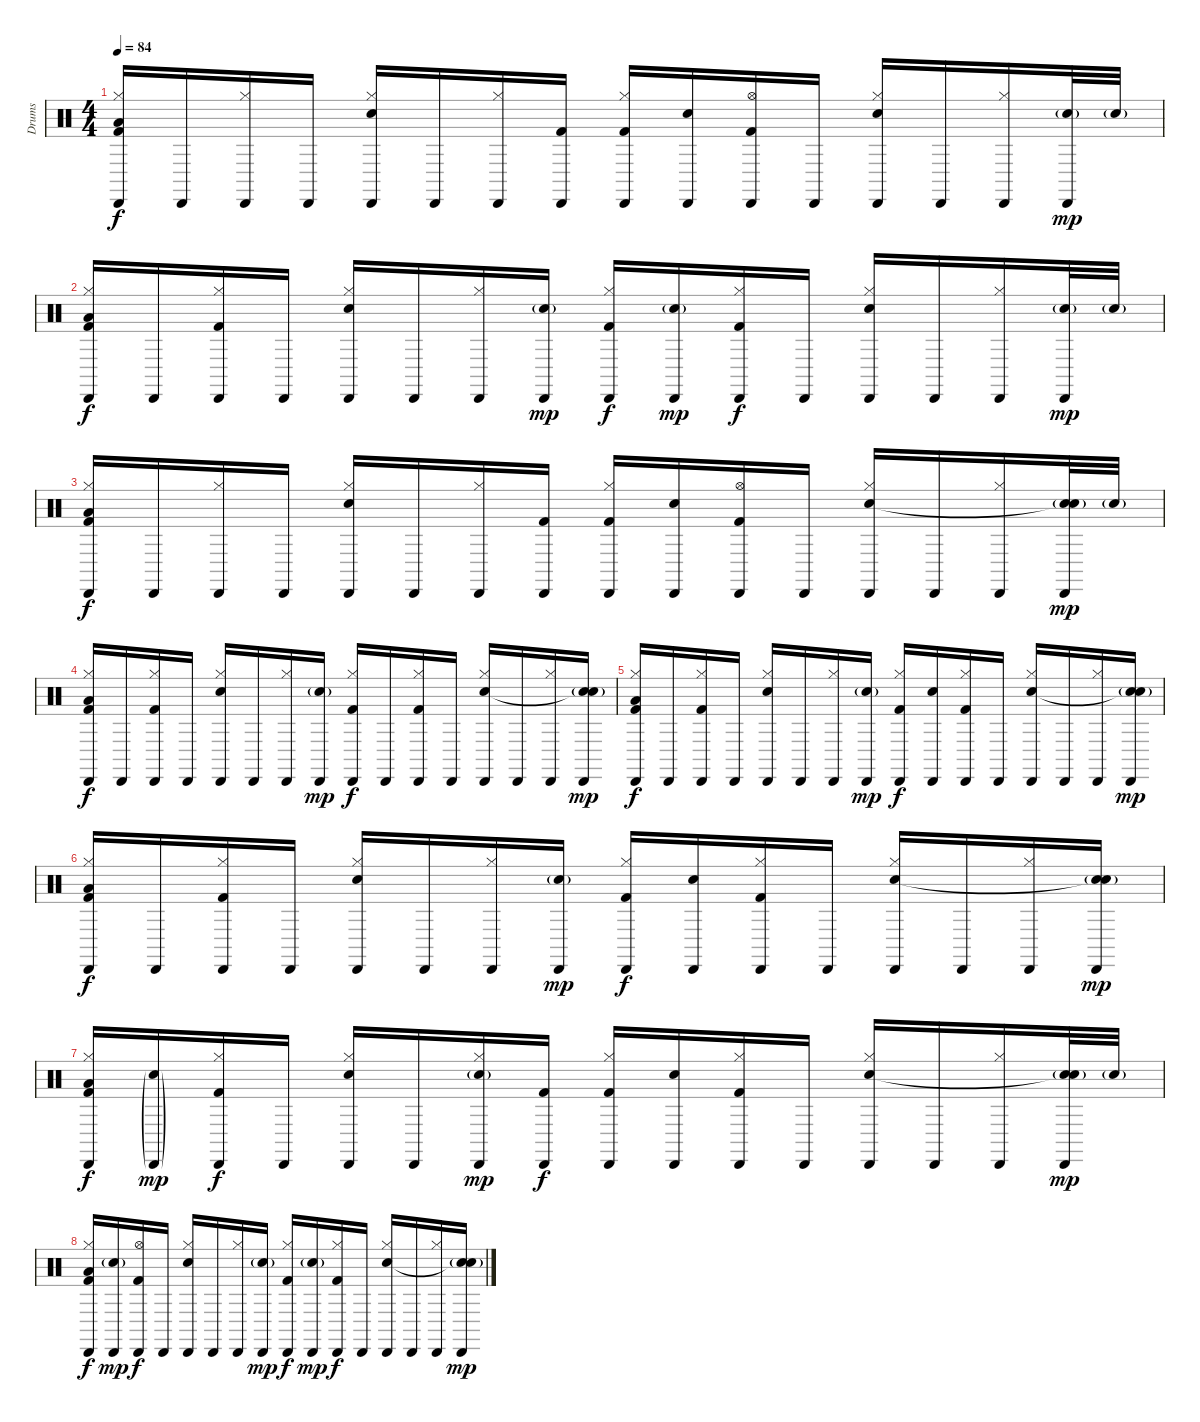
\track ("Drums" "Drums") {instrument percussion}
\staff {score}
\articulation defaults
\ts (4 4)
\tempo 84
\clef neutral
\ks c
("Hi-Hat (closed)" "Cabasa (hit)" "Low Floor Tom (hit)" "Kick (hit) 2").16{dy f} "Cabasa (hit)".16 ("Hi-Hat (closed)" "Cabasa (hit)").16 "Cabasa (hit)".16 ("Hi-Hat (closed)" "Cabasa (hit)" "Electric Snare (hit)").16 "Cabasa (hit)".16 ("Hi-Hat (closed)" "Cabasa (hit)").16 ("Cabasa (hit)" "Kick (hit) 2").16 ("Hi-Hat (closed)" "Cabasa (hit)" "Kick (hit) 2").16 ("Cabasa (hit)" "Electric Snare (hit)").16 ("Hi-Hat (open)" "Cabasa (hit)" "Kick (hit) 2").16 "Cabasa (hit)".16 ("Hi-Hat (closed)" "Cabasa (hit)" "Electric Snare (hit)").16 "Cabasa (hit)".16 ("Hi-Hat (closed)" "Cabasa (hit)").16 ("Cabasa (hit)" "Electric Snare (hit)"{g}).32{dy mp} "Electric Snare (hit)"{g}.32 |
("Hi-Hat (closed)" "Cabasa (hit)" "Low Floor Tom (hit)" "Kick (hit) 2").16{dy f} "Cabasa (hit)".16 ("Hi-Hat (closed)" "Cabasa (hit)" "Kick (hit) 2").16 "Cabasa (hit)".16 ("Hi-Hat (closed)" "Cabasa (hit)" "Electric Snare (hit)").16 "Cabasa (hit)".16 ("Hi-Hat (closed)" "Cabasa (hit)").16 ("Cabasa (hit)" "Electric Snare (hit)"{g}).16{dy mp} ("Hi-Hat (closed)" "Cabasa (hit)" "Kick (hit) 2").16{dy f} ("Cabasa (hit)" "Electric Snare (hit)"{g}).16{dy mp} ("Hi-Hat (closed)" "Cabasa (hit)" "Kick (hit) 2").16{dy f} "Cabasa (hit)".16 ("Hi-Hat (closed)" "Cabasa (hit)" "Electric Snare (hit)").16 "Cabasa (hit)".16 ("Hi-Hat (closed)" "Cabasa (hit)").16 ("Cabasa (hit)" "Electric Snare (hit)"{g}).32{dy mp} "Electric Snare (hit)"{g}.32 |
("Hi-Hat (closed)" "Cabasa (hit)" "Low Floor Tom (hit)" "Kick (hit) 2").16{dy f} "Cabasa (hit)".16 ("Hi-Hat (closed)" "Cabasa (hit)").16 "Cabasa (hit)".16 ("Hi-Hat (closed)" "Cabasa (hit)" "Electric Snare (hit)").16 "Cabasa (hit)".16 ("Hi-Hat (closed)" "Cabasa (hit)").16 ("Cabasa (hit)" "Kick (hit) 2").16 ("Hi-Hat (closed)" "Cabasa (hit)" "Kick (hit) 2").16 ("Cabasa (hit)" "Electric Snare (hit)").16 ("Hi-Hat (open)" "Cabasa (hit)" "Kick (hit) 2").16 "Cabasa (hit)".16 ("Hi-Hat (closed)" "Cabasa (hit)" "Electric Snare (hit)").16 "Cabasa (hit)".16 ("Hi-Hat (closed)" "Cabasa (hit)").16 ("Cabasa (hit)" "Electric Snare (hit)"{g} "Snare (hit)"{t}).32{dy mp} "Electric Snare (hit)"{g}.32 |
("Hi-Hat (closed)" "Cabasa (hit)" "Low Floor Tom (hit)" "Kick (hit) 2").16{dy f} "Cabasa (hit)".16 ("Hi-Hat (closed)" "Cabasa (hit)" "Kick (hit) 2").16 "Cabasa (hit)".16 ("Hi-Hat (closed)" "Cabasa (hit)" "Electric Snare (hit)").16 "Cabasa (hit)".16 ("Hi-Hat (closed)" "Cabasa (hit)").16 ("Cabasa (hit)" "Electric Snare (hit)"{g}).16{dy mp} ("Hi-Hat (closed)" "Cabasa (hit)" "Kick (hit) 2").16{dy f} "Cabasa (hit)".16 ("Hi-Hat (closed)" "Cabasa (hit)" "Kick (hit) 2").16 "Cabasa (hit)".16 ("Hi-Hat (closed)" "Cabasa (hit)" "Electric Snare (hit)").16 "Cabasa (hit)".16 ("Hi-Hat (closed)" "Cabasa (hit)").16 ("Cabasa (hit)" "Electric Snare (hit)"{g} "Snare (hit)"{t}).16{dy mp} |
("Hi-Hat (closed)" "Cabasa (hit)" "Low Floor Tom (hit)" "Kick (hit) 2").16{dy f} "Cabasa (hit)".16 ("Hi-Hat (closed)" "Cabasa (hit)" "Kick (hit) 2").16 "Cabasa (hit)".16 ("Hi-Hat (closed)" "Cabasa (hit)" "Electric Snare (hit)").16 "Cabasa (hit)".16 ("Hi-Hat (closed)" "Cabasa (hit)").16 ("Cabasa (hit)" "Electric Snare (hit)"{g}).16{dy mp} ("Hi-Hat (closed)" "Cabasa (hit)" "Kick (hit) 2").16{dy f} ("Cabasa (hit)" "Electric Snare (hit)").16 ("Hi-Hat (closed)" "Cabasa (hit)" "Kick (hit) 2").16 "Cabasa (hit)".16 ("Hi-Hat (closed)" "Cabasa (hit)" "Electric Snare (hit)").16 "Cabasa (hit)".16 ("Hi-Hat (closed)" "Cabasa (hit)").16 ("Cabasa (hit)" "Electric Snare (hit)"{g} "Snare (hit)"{t}).16{dy mp} |
("Hi-Hat (closed)" "Cabasa (hit)" "Low Floor Tom (hit)" "Kick (hit) 2").16{dy f} "Cabasa (hit)".16 ("Hi-Hat (closed)" "Cabasa (hit)" "Kick (hit) 2").16 "Cabasa (hit)".16 ("Hi-Hat (closed)" "Cabasa (hit)" "Electric Snare (hit)").16 "Cabasa (hit)".16 ("Hi-Hat (closed)" "Cabasa (hit)").16 ("Cabasa (hit)" "Electric Snare (hit)"{g}).16{dy mp} ("Hi-Hat (closed)" "Cabasa (hit)" "Kick (hit) 2").16{dy f} ("Cabasa (hit)" "Electric Snare (hit)").16 ("Hi-Hat (closed)" "Cabasa (hit)" "Kick (hit) 2").16 "Cabasa (hit)".16 ("Hi-Hat (closed)" "Cabasa (hit)" "Electric Snare (hit)").16 "Cabasa (hit)".16 ("Hi-Hat (closed)" "Cabasa (hit)").16 ("Cabasa (hit)" "Electric Snare (hit)"{g} "Snare (hit)"{t}).16{dy mp} |
("Hi-Hat (closed)" "Cabasa (hit)" "Low Floor Tom (hit)" "Kick (hit) 2").16{dy f} ("Cabasa (hit)"{g} "Electric Snare (hit)"{g}).16{dy mp} ("Hi-Hat (closed)" "Cabasa (hit)" "Kick (hit) 2").16{dy f} "Cabasa (hit)".16 ("Hi-Hat (closed)" "Cabasa (hit)" "Electric Snare (hit)").16 "Cabasa (hit)".16 ("Hi-Hat (closed)" "Cabasa (hit)" "Electric Snare (hit)"{g}).16{dy mp} ("Cabasa (hit)" "Kick (hit) 2").16{dy f} ("Hi-Hat (closed)" "Cabasa (hit)" "Kick (hit) 2").16 ("Cabasa (hit)" "Electric Snare (hit)").16 ("Hi-Hat (closed)" "Cabasa (hit)" "Kick (hit) 2").16 "Cabasa (hit)".16 ("Hi-Hat (closed)" "Cabasa (hit)" "Electric Snare (hit)").16 "Cabasa (hit)".16 ("Hi-Hat (closed)" "Cabasa (hit)").16 ("Cabasa (hit)" "Electric Snare (hit)"{g} "Snare (hit)"{t}).32{dy mp} "Electric Snare (hit)"{g}.32 |
("Hi-Hat (closed)" "Cabasa (hit)" "Low Floor Tom (hit)" "Kick (hit) 2").16{dy f} ("Cabasa (hit)" "Electric Snare (hit)"{g}).16{dy mp} ("Hi-Hat (open)" "Cabasa (hit)" "Kick (hit) 2").16{dy f} "Cabasa (hit)".16 ("Hi-Hat (closed)" "Cabasa (hit)" "Electric Snare (hit)").16 "Cabasa (hit)".16 ("Hi-Hat (closed)" "Cabasa (hit)").16 ("Cabasa (hit)" "Electric Snare (hit)"{g}).16{dy mp} ("Hi-Hat (closed)" "Cabasa (hit)" "Kick (hit) 2").16{dy f} ("Cabasa (hit)" "Electric Snare (hit)"{g}).16{dy mp} ("Hi-Hat (closed)" "Cabasa (hit)" "Kick (hit) 2").16{dy f} "Cabasa (hit)".16 ("Hi-Hat (closed)" "Cabasa (hit)" "Electric Snare (hit)").16 "Cabasa (hit)".16 ("Hi-Hat (closed)" "Cabasa (hit)").16 ("Cabasa (hit)" "Electric Snare (hit)"{g} "Snare (hit)"{t}).16{dy mp}
